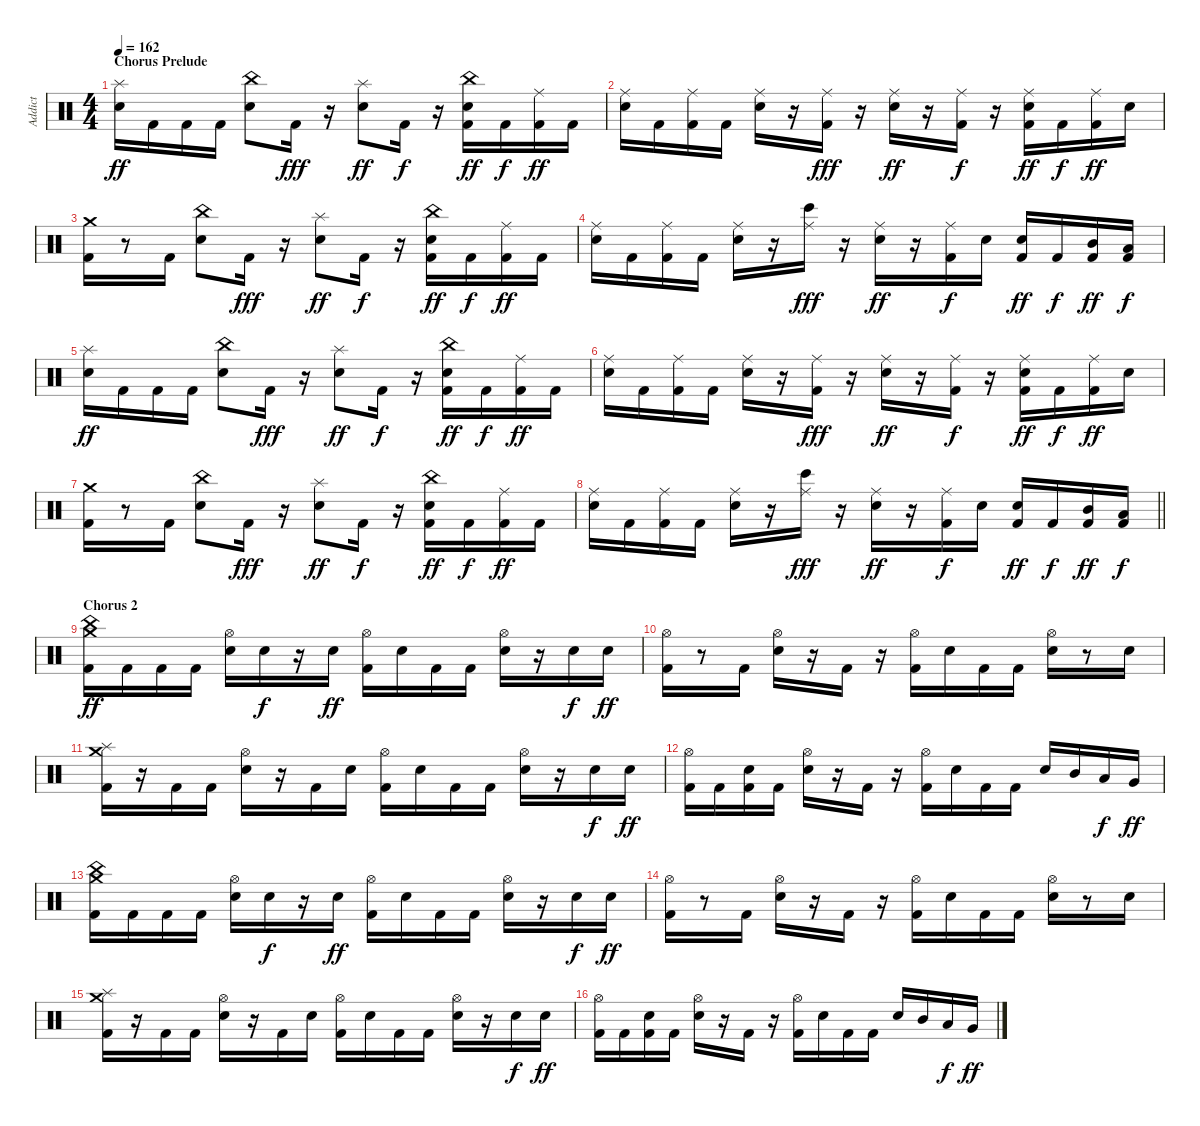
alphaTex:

\track ("Addict" "Addict") {instrument percussion}
\staff {score}
\articulation defaults
\ts (4 4)
\section ("" "Chorus Prelude")
\tempo 162
\clef neutral
\ks c
("Snare (hit) 2" "Splash (hit)").16{dy ff} "Kick (hit) 2".16 "Kick (hit) 2".16 "Kick (hit) 2".16 ("Snare (hit) 2" "China (hit)").8 "Kick (hit) 2".16{dy fff} r.16 ("Snare (hit) 2" "Splash (hit)").8{dy ff} "Kick (hit) 2".16{dy f} r.16 ("Kick (hit) 2" "Snare (hit) 2" "China (hit)").16{dy ff} "Kick (hit) 2".16{dy f} ("Kick (hit) 2" "Ride (middle)").16{dy ff} "Kick (hit) 2".16 |
("Snare (hit) 2" "Ride (middle)").16 "Kick (hit) 2".16 ("Kick (hit) 2" "Ride (middle)").16 "Kick (hit) 2".16 ("Snare (hit) 2" "Ride (middle)").16 r.16 ("Ride (middle)" "Kick (hit) 2").16{dy fff} r.16 ("Snare (hit) 2" "Ride (middle)").16{dy ff} r.16 ("Kick (hit) 2" "Ride (middle)").16{dy f} r.16 ("Kick (hit) 2" "Snare (hit) 2" "Ride (middle)").16{dy ff} "Kick (hit) 2".16{dy f} ("Kick (hit) 2" "Ride (middle)").16{dy ff} "Snare (hit) 2".16 |
("Kick (hit) 2" "Crash medium (hit)").16 r.8 "Kick (hit) 2".16 ("Snare (hit) 2" "China (hit)").8 "Kick (hit) 2".16{dy fff} r.16 ("Snare (hit) 2" "Splash (hit)").8{dy ff} "Kick (hit) 2".16{dy f} r.16 ("Kick (hit) 2" "Snare (hit) 2" "China (hit)").16{dy ff} "Kick (hit) 2".16{dy f} ("Kick (hit) 2" "Ride (middle)").16{dy ff} "Kick (hit) 2".16 |
("Snare (hit) 2" "Ride (middle)").16 "Kick (hit) 2".16 ("Kick (hit) 2" "Ride (middle)").16 "Kick (hit) 2".16 ("Snare (hit) 2" "Ride (middle)").16 r.16 ("Bongo High (hit)" "Ride (middle)").16{dy fff} r.16 ("Snare (hit) 2" "Ride (middle)").16{dy ff} r.16 ("Kick (hit) 2" "Ride (middle)").16{dy f} "Snare (hit) 2".16 ("Kick (hit) 2" "Snare (hit) 2").16{dy ff} "Kick (hit) 2".16{dy f} ("Kick (hit) 2" "Mid Tom (hit)").16{dy ff} ("Low Tom (hit)" "Kick (hit) 2").16{dy f} |
("Snare (hit) 2" "Splash (hit)").16{dy ff} "Kick (hit) 2".16 "Kick (hit) 2".16 "Kick (hit) 2".16 ("Snare (hit) 2" "China (hit)").8 "Kick (hit) 2".16{dy fff} r.16 ("Snare (hit) 2" "Splash (hit)").8{dy ff} "Kick (hit) 2".16{dy f} r.16 ("Kick (hit) 2" "Snare (hit) 2" "China (hit)").16{dy ff} "Kick (hit) 2".16{dy f} ("Kick (hit) 2" "Ride (middle)").16{dy ff} "Kick (hit) 2".16 |
("Snare (hit) 2" "Ride (middle)").16 "Kick (hit) 2".16 ("Kick (hit) 2" "Ride (middle)").16 "Kick (hit) 2".16 ("Snare (hit) 2" "Ride (middle)").16 r.16 ("Ride (middle)" "Kick (hit) 2").16{dy fff} r.16 ("Snare (hit) 2" "Ride (middle)").16{dy ff} r.16 ("Kick (hit) 2" "Ride (middle)").16{dy f} r.16 ("Kick (hit) 2" "Snare (hit) 2" "Ride (middle)").16{dy ff} "Kick (hit) 2".16{dy f} ("Kick (hit) 2" "Ride (middle)").16{dy ff} "Snare (hit) 2".16 |
("Kick (hit) 2" "Crash medium (hit)").16 r.8 "Kick (hit) 2".16 ("Snare (hit) 2" "China (hit)").8 "Kick (hit) 2".16{dy fff} r.16 ("Snare (hit) 2" "Splash (hit)").8{dy ff} "Kick (hit) 2".16{dy f} r.16 ("Kick (hit) 2" "Snare (hit) 2" "China (hit)").16{dy ff} "Kick (hit) 2".16{dy f} ("Kick (hit) 2" "Ride (middle)").16{dy ff} "Kick (hit) 2".16 |
\barLineRight lightlight
("Snare (hit) 2" "Ride (middle)").16 "Kick (hit) 2".16 ("Kick (hit) 2" "Ride (middle)").16 "Kick (hit) 2".16 ("Snare (hit) 2" "Ride (middle)").16 r.16 ("Bongo High (hit)" "Ride (middle)").16{dy fff} r.16 ("Snare (hit) 2" "Ride (middle)").16{dy ff} r.16 ("Kick (hit) 2" "Ride (middle)").16{dy f} "Snare (hit) 2".16 ("Kick (hit) 2" "Snare (hit) 2").16{dy ff} "Kick (hit) 2".16{dy f} ("Kick (hit) 2" "Mid Tom (hit)").16{dy ff} ("Low Tom (hit)" "Kick (hit) 2").16{dy f} |
\section ("" "Chorus 2")
("Kick (hit) 2" "Crash medium (hit)" "China (hit)").16{dy ff} "Kick (hit) 2".16 "Kick (hit) 2".16 "Kick (hit) 2".16 ("Snare (hit) 2" "Hi-Hat (open)").16 "Snare (hit) 2".16{dy f} r.16 "Snare (hit) 2".16{dy ff} ("Kick (hit) 2" "Hi-Hat (open)").16 "Snare (hit) 2".16 "Kick (hit) 2".16 "Kick (hit) 2".16 ("Snare (hit) 2" "Hi-Hat (open)").16 r.16 "Snare (hit) 2".16{dy f} "Snare (hit) 2".16{dy ff} |
("Kick (hit) 2" "Hi-Hat (open)").16 r.8 "Kick (hit) 2".16 ("Snare (hit) 2" "Hi-Hat (open)").16 r.16 "Kick (hit) 2".16 r.16 ("Kick (hit) 2" "Hi-Hat (open)").16 "Snare (hit) 2".16 "Kick (hit) 2".16 "Kick (hit) 2".16 ("Snare (hit) 2" "Hi-Hat (open)").16 r.8 "Snare (hit) 2".16 |
("Kick (hit) 2" "Crash medium (hit)" "Splash (hit)").16 r.16 "Kick (hit) 2".16 "Kick (hit) 2".16 ("Snare (hit) 2" "Hi-Hat (open)").16 r.16 "Kick (hit) 2".16 "Snare (hit) 2".16 ("Kick (hit) 2" "Hi-Hat (open)").16 "Snare (hit) 2".16 "Kick (hit) 2".16 "Kick (hit) 2".16 ("Snare (hit) 2" "Hi-Hat (open)").16 r.16 "Snare (hit) 2".16{dy f} "Snare (hit) 2".16{dy ff} |
("Kick (hit) 2" "Hi-Hat (open)").16 "Kick (hit) 2".16 ("Kick (hit) 2" "Snare (hit) 2").16 "Kick (hit) 2".16 ("Snare (hit) 2" "Hi-Hat (open)").16 r.16 "Kick (hit) 2".16 r.16 ("Kick (hit) 2" "Hi-Hat (open)").16 "Snare (hit) 2".16 "Kick (hit) 2".16 "Kick (hit) 2".16 "Snare (hit) 2".16 "Mid Tom (hit)".16 "Low Tom (hit)".16{dy f} "Very Low Tom (hit)".16{dy ff} |
("Kick (hit) 2" "Crash medium (hit)" "China (hit)").16 "Kick (hit) 2".16 "Kick (hit) 2".16 "Kick (hit) 2".16 ("Snare (hit) 2" "Hi-Hat (open)").16 "Snare (hit) 2".16{dy f} r.16 "Snare (hit) 2".16{dy ff} ("Kick (hit) 2" "Hi-Hat (open)").16 "Snare (hit) 2".16 "Kick (hit) 2".16 "Kick (hit) 2".16 ("Snare (hit) 2" "Hi-Hat (open)").16 r.16 "Snare (hit) 2".16{dy f} "Snare (hit) 2".16{dy ff} |
("Kick (hit) 2" "Hi-Hat (open)").16 r.8 "Kick (hit) 2".16 ("Snare (hit) 2" "Hi-Hat (open)").16 r.16 "Kick (hit) 2".16 r.16 ("Kick (hit) 2" "Hi-Hat (open)").16 "Snare (hit) 2".16 "Kick (hit) 2".16 "Kick (hit) 2".16 ("Snare (hit) 2" "Hi-Hat (open)").16 r.8 "Snare (hit) 2".16 |
("Kick (hit) 2" "Crash medium (hit)" "Splash (hit)").16 r.16 "Kick (hit) 2".16 "Kick (hit) 2".16 ("Snare (hit) 2" "Hi-Hat (open)").16 r.16 "Kick (hit) 2".16 "Snare (hit) 2".16 ("Kick (hit) 2" "Hi-Hat (open)").16 "Snare (hit) 2".16 "Kick (hit) 2".16 "Kick (hit) 2".16 ("Snare (hit) 2" "Hi-Hat (open)").16 r.16 "Snare (hit) 2".16{dy f} "Snare (hit) 2".16{dy ff} |
("Kick (hit) 2" "Hi-Hat (open)").16 "Kick (hit) 2".16 ("Kick (hit) 2" "Snare (hit) 2").16 "Kick (hit) 2".16 ("Snare (hit) 2" "Hi-Hat (open)").16 r.16 "Kick (hit) 2".16 r.16 ("Kick (hit) 2" "Hi-Hat (open)").16 "Snare (hit) 2".16 "Kick (hit) 2".16 "Kick (hit) 2".16 "Snare (hit) 2".16 "Mid Tom (hit)".16 "Low Tom (hit)".16{dy f} "Very Low Tom (hit)".16{dy ff}
